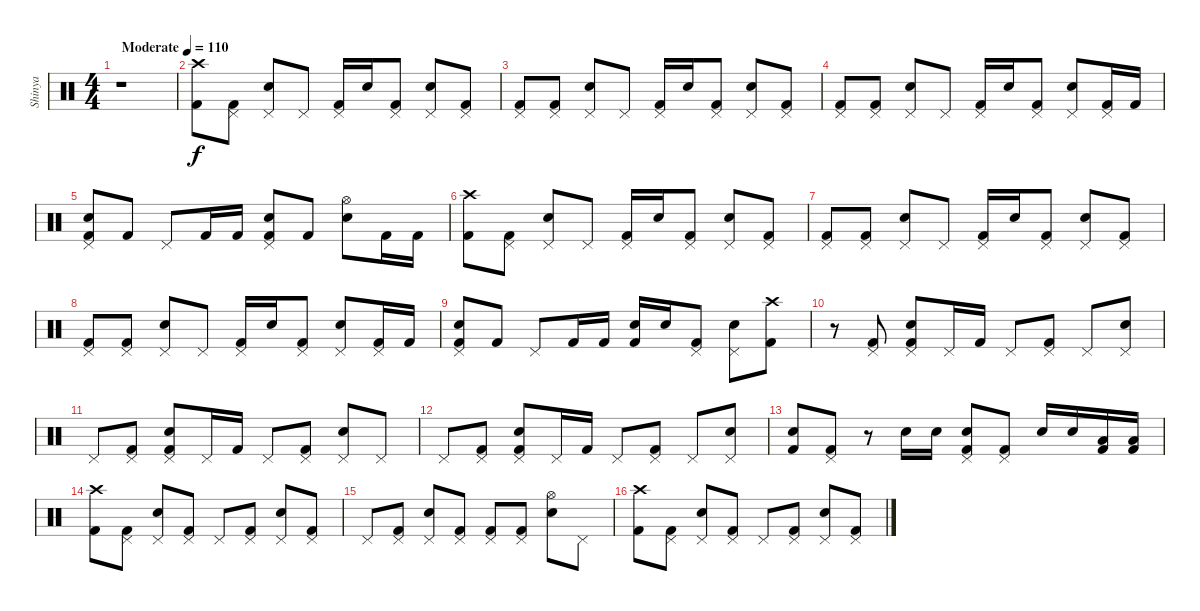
\track ("Shinya" "Shinya") {instrument percussion}
\staff {score}
\articulation defaults
\ts (4 4)
\tempo (110 "Moderate")
\clef neutral
\ks c
r.1{dy f} |
("Crash high (hit)" "Kick (hit) 2").8 ("Pedal Hi-Hat (hit)" "Kick (hit) 2").8 ("Pedal Hi-Hat (hit)" "Electric Snare (hit)").8 "Pedal Hi-Hat (hit)".8 ("Pedal Hi-Hat (hit)" "Kick (hit) 2").16 "Electric Snare (hit)".16 ("Pedal Hi-Hat (hit)" "Kick (hit) 2").8 ("Pedal Hi-Hat (hit)" "Electric Snare (hit)").8 ("Pedal Hi-Hat (hit)" "Kick (hit) 2").8 |
("Pedal Hi-Hat (hit)" "Kick (hit) 2").8 ("Pedal Hi-Hat (hit)" "Kick (hit) 2").8 ("Pedal Hi-Hat (hit)" "Electric Snare (hit)").8 "Pedal Hi-Hat (hit)".8 ("Pedal Hi-Hat (hit)" "Kick (hit) 2").16 "Electric Snare (hit)".16 ("Pedal Hi-Hat (hit)" "Kick (hit) 2").8 ("Pedal Hi-Hat (hit)" "Electric Snare (hit)").8 ("Pedal Hi-Hat (hit)" "Kick (hit) 2").8 |
("Pedal Hi-Hat (hit)" "Kick (hit) 2").8 ("Pedal Hi-Hat (hit)" "Kick (hit) 2").8 ("Pedal Hi-Hat (hit)" "Electric Snare (hit)").8 "Pedal Hi-Hat (hit)".8 ("Pedal Hi-Hat (hit)" "Kick (hit) 2").16 "Electric Snare (hit)".16 ("Pedal Hi-Hat (hit)" "Kick (hit) 2").8 ("Pedal Hi-Hat (hit)" "Electric Snare (hit)").8 ("Pedal Hi-Hat (hit)" "Kick (hit) 2").16 "Kick (hit) 2".16 |
("Pedal Hi-Hat (hit)" "Electric Snare (hit)" "Kick (hit) 2").8 "Kick (hit) 2".8 "Pedal Hi-Hat (hit)".8 "Kick (hit) 2".16 "Kick (hit) 2".16 ("Pedal Hi-Hat (hit)" "Electric Snare (hit)" "Kick (hit) 2").8 "Kick (hit) 2".8 ("Hi-Hat (open)" "Electric Snare (hit)").8 "Kick (hit) 2".16 "Kick (hit) 2".16 |
("Crash high (hit)" "Kick (hit) 2").8 ("Pedal Hi-Hat (hit)" "Kick (hit) 2").8 ("Pedal Hi-Hat (hit)" "Electric Snare (hit)").8 "Pedal Hi-Hat (hit)".8 ("Pedal Hi-Hat (hit)" "Kick (hit) 2").16 "Electric Snare (hit)".16 ("Pedal Hi-Hat (hit)" "Kick (hit) 2").8 ("Pedal Hi-Hat (hit)" "Electric Snare (hit)").8 ("Pedal Hi-Hat (hit)" "Kick (hit) 2").8 |
("Pedal Hi-Hat (hit)" "Kick (hit) 2").8 ("Pedal Hi-Hat (hit)" "Kick (hit) 2").8 ("Pedal Hi-Hat (hit)" "Electric Snare (hit)").8 "Pedal Hi-Hat (hit)".8 ("Pedal Hi-Hat (hit)" "Kick (hit) 2").16 "Electric Snare (hit)".16 ("Pedal Hi-Hat (hit)" "Kick (hit) 2").8 ("Pedal Hi-Hat (hit)" "Electric Snare (hit)").8 ("Pedal Hi-Hat (hit)" "Kick (hit) 2").8 |
("Pedal Hi-Hat (hit)" "Kick (hit) 2").8 ("Pedal Hi-Hat (hit)" "Kick (hit) 2").8 ("Pedal Hi-Hat (hit)" "Electric Snare (hit)").8 "Pedal Hi-Hat (hit)".8 ("Pedal Hi-Hat (hit)" "Kick (hit) 2").16 "Electric Snare (hit)".16 ("Pedal Hi-Hat (hit)" "Kick (hit) 2").8 ("Pedal Hi-Hat (hit)" "Electric Snare (hit)").8 ("Pedal Hi-Hat (hit)" "Kick (hit) 2").16 "Kick (hit) 2".16 |
("Pedal Hi-Hat (hit)" "Electric Snare (hit)" "Kick (hit) 2").8 "Kick (hit) 2".8 "Pedal Hi-Hat (hit)".8 "Kick (hit) 2".16 "Kick (hit) 2".16 ("Electric Snare (hit)" "Kick (hit) 2").16 "Electric Snare (hit)".16 ("Pedal Hi-Hat (hit)" "Kick (hit) 2").8 ("Pedal Hi-Hat (hit)" "Electric Snare (hit)").8 ("Crash high (hit)" "Kick (hit) 2").8 |
r.8 ("Pedal Hi-Hat (hit)" "Kick (hit) 2").8 ("Pedal Hi-Hat (hit)" "Electric Snare (hit)" "Kick (hit) 2").8 "Pedal Hi-Hat (hit)".16 "Kick (hit) 2".16 "Pedal Hi-Hat (hit)".8 ("Pedal Hi-Hat (hit)" "Kick (hit) 2").8 "Pedal Hi-Hat (hit)".8 ("Pedal Hi-Hat (hit)" "Electric Snare (hit)").8 |
"Pedal Hi-Hat (hit)".8 ("Pedal Hi-Hat (hit)" "Kick (hit) 2").8 ("Pedal Hi-Hat (hit)" "Electric Snare (hit)" "Kick (hit) 2").8 "Pedal Hi-Hat (hit)".16 "Kick (hit) 2".16 "Pedal Hi-Hat (hit)".8 ("Pedal Hi-Hat (hit)" "Kick (hit) 2").8 ("Pedal Hi-Hat (hit)" "Electric Snare (hit)").8 "Pedal Hi-Hat (hit)".8 |
"Pedal Hi-Hat (hit)".8 ("Pedal Hi-Hat (hit)" "Kick (hit) 2").8 ("Pedal Hi-Hat (hit)" "Electric Snare (hit)" "Kick (hit) 2").8 "Pedal Hi-Hat (hit)".16 "Kick (hit) 2".16 "Pedal Hi-Hat (hit)".8 ("Pedal Hi-Hat (hit)" "Kick (hit) 2").8 "Pedal Hi-Hat (hit)".8 ("Pedal Hi-Hat (hit)" "Electric Snare (hit)").8 |
("Electric Snare (hit)" "Kick (hit) 2").8 ("Pedal Hi-Hat (hit)" "Kick (hit) 2").8 r.8 "Electric Snare (hit)".16 "Electric Snare (hit)".16 ("Pedal Hi-Hat (hit)" "Electric Snare (hit)" "Kick (hit) 2").8 ("Pedal Hi-Hat (hit)" "Kick (hit) 2").8 "Electric Snare (hit)".16 "Electric Snare (hit)".16 ("Low Floor Tom (hit)" "Kick (hit) 2").16 ("Low Floor Tom (hit)" "Kick (hit) 2").16 |
("Crash high (hit)" "Kick (hit) 2").8 ("Pedal Hi-Hat (hit)" "Kick (hit) 2").8 ("Pedal Hi-Hat (hit)" "Electric Snare (hit)").8 ("Pedal Hi-Hat (hit)" "Kick (hit) 2").8 "Pedal Hi-Hat (hit)".8 ("Pedal Hi-Hat (hit)" "Kick (hit) 2").8 ("Pedal Hi-Hat (hit)" "Electric Snare (hit)").8 ("Pedal Hi-Hat (hit)" "Kick (hit) 2").8 |
"Pedal Hi-Hat (hit)".8 ("Pedal Hi-Hat (hit)" "Kick (hit) 2").8 ("Pedal Hi-Hat (hit)" "Electric Snare (hit)").8 ("Pedal Hi-Hat (hit)" "Kick (hit) 2").8 ("Pedal Hi-Hat (hit)" "Kick (hit) 2").8 ("Pedal Hi-Hat (hit)" "Kick (hit) 2").8 ("Hi-Hat (open)" "Electric Snare (hit)").8 "Pedal Hi-Hat (hit)".8 |
("Crash high (hit)" "Kick (hit) 2").8 ("Pedal Hi-Hat (hit)" "Kick (hit) 2").8 ("Pedal Hi-Hat (hit)" "Electric Snare (hit)").8 ("Pedal Hi-Hat (hit)" "Kick (hit) 2").8 "Pedal Hi-Hat (hit)".8 ("Pedal Hi-Hat (hit)" "Kick (hit) 2").8 ("Pedal Hi-Hat (hit)" "Electric Snare (hit)").8 ("Pedal Hi-Hat (hit)" "Kick (hit) 2").8
